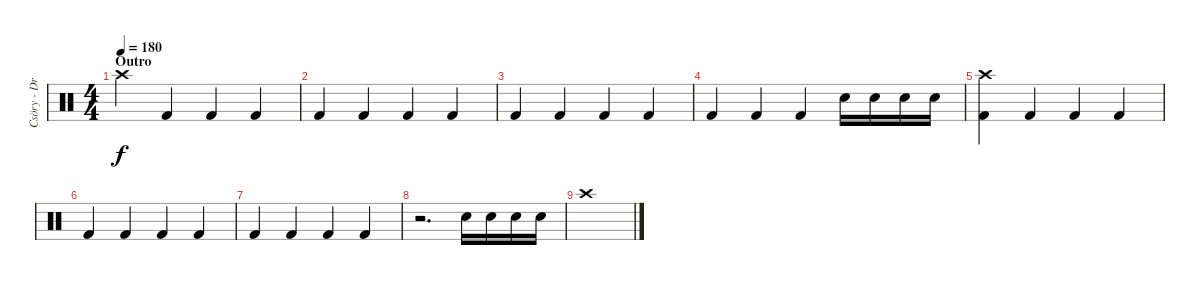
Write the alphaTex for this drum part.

\track ("Csöry - DrumZ" "Csöry - Dr") {instrument percussion}
\staff {score}
\articulation defaults
\ts (4 4)
\section ("" "Outro")
\tempo 180
\clef neutral
\ks c "Crash high (hit)".4{dy f} "Kick (hit) 2".4 "Kick (hit) 2".4 "Kick (hit) 2".4
|
"Kick (hit) 2".4 "Kick (hit) 2".4 "Kick (hit) 2".4 "Kick (hit) 2".4 |
"Kick (hit) 2".4 "Kick (hit) 2".4 "Kick (hit) 2".4 "Kick (hit) 2".4 |
"Kick (hit) 2".4 "Kick (hit) 2".4 "Kick (hit) 2".4 "Snare (hit) 2".16 "Snare (hit) 2".16 "Snare (hit) 2".16 "Snare (hit) 2".16 |
("Crash high (hit)" "Kick (hit) 2").4 "Kick (hit) 2".4 "Kick (hit) 2".4 "Kick (hit) 2".4 |
"Kick (hit) 2".4 "Kick (hit) 2".4 "Kick (hit) 2".4 "Kick (hit) 2".4 |
"Kick (hit) 2".4 "Kick (hit) 2".4 "Kick (hit) 2".4 "Kick (hit) 2".4 |
r.2{d} "Snare (hit) 2".16 "Snare (hit) 2".16 "Snare (hit) 2".16 "Snare (hit) 2".16 |
"Crash high (hit)".1
